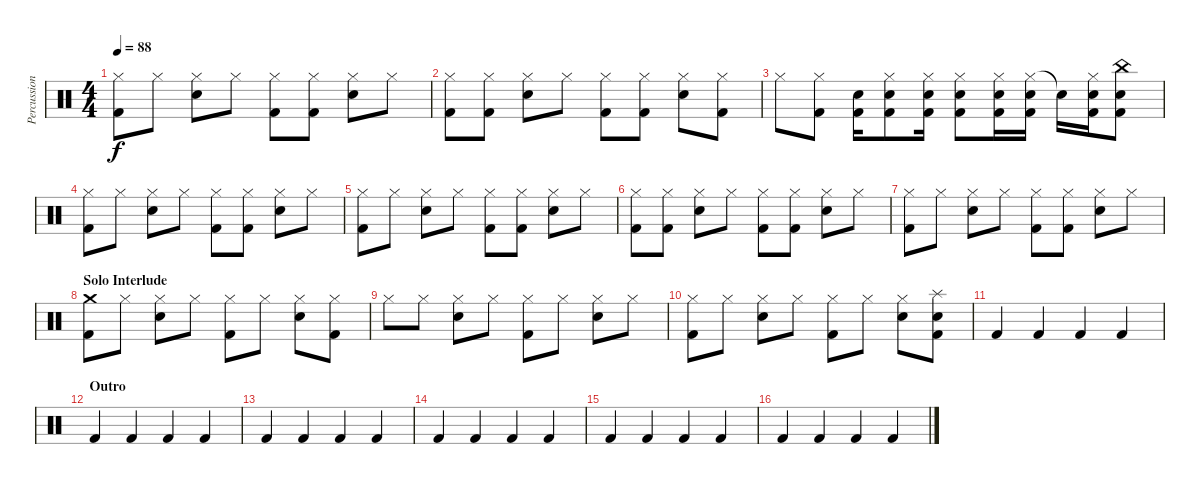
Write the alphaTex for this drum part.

\track ("Percussion" "Percussion") {instrument percussion}
\staff {score}
\articulation defaults
\ts (4 4)
\tempo 88
\clef neutral
\ks c
("Hi-Hat (closed)" "Kick (hit) 2").8{dy f} "Hi-Hat (closed)".8 ("Hi-Hat (closed)" "Snare (hit) 2").8 "Hi-Hat (closed)".8 ("Hi-Hat (closed)" "Kick (hit) 2").8 ("Hi-Hat (closed)" "Kick (hit) 2").8 ("Hi-Hat (closed)" "Snare (hit) 2").8 "Hi-Hat (closed)".8 |
("Hi-Hat (closed)" "Kick (hit) 2").8 ("Hi-Hat (closed)" "Kick (hit) 2").8 ("Hi-Hat (closed)" "Snare (hit) 2").8 "Hi-Hat (closed)".8 ("Hi-Hat (closed)" "Kick (hit) 2").8 ("Hi-Hat (closed)" "Kick (hit) 2").8 ("Hi-Hat (closed)" "Snare (hit) 2").8 ("Hi-Hat (closed)" "Kick (hit) 2").8 |
"Hi-Hat (closed)".8 ("Hi-Hat (closed)" "Kick (hit) 2").8 ("Snare (hit) 2" "Kick (hit) 2").16 ("Hi-Hat (closed)" "Snare (hit) 2" "Kick (hit) 2").8 ("Hi-Hat (closed)" "Snare (hit) 2" "Kick (hit) 2").16 ("Hi-Hat (closed)" "Snare (hit) 2" "Kick (hit) 2").8 ("Hi-Hat (closed)" "Snare (hit) 2" "Kick (hit) 2").16 ("Hi-Hat (closed)" "Snare (hit) 2" "Kick (hit) 2").16 "Snare (hit)"{t}.16 ("Hi-Hat (closed)" "Snare (hit) 2" "Kick (hit) 2").16 ("China (hit)" "Snare (hit) 2" "Kick (hit) 2").8 |
("Hi-Hat (closed)" "Kick (hit) 2").8 "Hi-Hat (closed)".8 ("Hi-Hat (closed)" "Snare (hit) 2").8 "Hi-Hat (closed)".8 ("Hi-Hat (closed)" "Kick (hit) 2").8 ("Hi-Hat (closed)" "Kick (hit) 2").8 ("Hi-Hat (closed)" "Snare (hit) 2").8 "Hi-Hat (closed)".8 |
("Hi-Hat (closed)" "Kick (hit) 2").8 "Hi-Hat (closed)".8 ("Hi-Hat (closed)" "Snare (hit) 2").8 "Hi-Hat (closed)".8 ("Hi-Hat (closed)" "Kick (hit) 2").8 ("Hi-Hat (closed)" "Kick (hit) 2").8 ("Hi-Hat (closed)" "Snare (hit) 2").8 "Hi-Hat (closed)".8 |
("Hi-Hat (closed)" "Kick (hit) 2").8 ("Hi-Hat (closed)" "Kick (hit) 2").8 ("Hi-Hat (closed)" "Snare (hit) 2").8 "Hi-Hat (closed)".8 ("Hi-Hat (closed)" "Kick (hit) 2").8 ("Hi-Hat (closed)" "Kick (hit) 2").8 ("Hi-Hat (closed)" "Snare (hit) 2").8 "Hi-Hat (closed)".8 |
("Hi-Hat (closed)" "Kick (hit) 2").8 "Hi-Hat (closed)".8 ("Hi-Hat (closed)" "Snare (hit) 2").8 "Hi-Hat (closed)".8 ("Hi-Hat (closed)" "Kick (hit) 2").8 ("Hi-Hat (closed)" "Kick (hit) 2").8 ("Hi-Hat (closed)" "Snare (hit) 2").8 "Hi-Hat (closed)".8 |
\section ("" "Solo Interlude")
("Crash medium (hit)" "Kick (hit) 2").8 "Hi-Hat (closed)".8 ("Hi-Hat (closed)" "Snare (hit) 2").8 "Hi-Hat (closed)".8 ("Hi-Hat (closed)" "Kick (hit) 2").8 "Hi-Hat (closed)".8 ("Hi-Hat (closed)" "Snare (hit) 2").8 ("Hi-Hat (closed)" "Kick (hit) 2").8 |
"Hi-Hat (closed)".8 "Hi-Hat (closed)".8 ("Hi-Hat (closed)" "Snare (hit) 2").8 "Hi-Hat (closed)".8 ("Hi-Hat (closed)" "Kick (hit) 2").8 "Hi-Hat (closed)".8 ("Hi-Hat (closed)" "Snare (hit) 2").8 "Hi-Hat (closed)".8 |
("Hi-Hat (closed)" "Kick (hit) 2").8 "Hi-Hat (closed)".8 ("Hi-Hat (closed)" "Snare (hit) 2").8 "Hi-Hat (closed)".8 ("Hi-Hat (closed)" "Kick (hit) 2").8 "Hi-Hat (closed)".8 ("Hi-Hat (closed)" "Snare (hit) 2").8 ("Splash (hit)" "Snare (hit) 2" "Kick (hit) 2").8 |
"Kick (hit) 2".4 "Kick (hit) 2".4 "Kick (hit) 2".4 "Kick (hit) 2".4 |
\section ("" "Outro")
"Kick (hit) 2".4 "Kick (hit) 2".4 "Kick (hit) 2".4 "Kick (hit) 2".4 |
"Kick (hit) 2".4 "Kick (hit) 2".4 "Kick (hit) 2".4 "Kick (hit) 2".4 |
"Kick (hit) 2".4 "Kick (hit) 2".4 "Kick (hit) 2".4 "Kick (hit) 2".4 |
"Kick (hit) 2".4 "Kick (hit) 2".4 "Kick (hit) 2".4 "Kick (hit) 2".4 |
"Kick (hit) 2".4 "Kick (hit) 2".4 "Kick (hit) 2".4 "Kick (hit) 2".4
